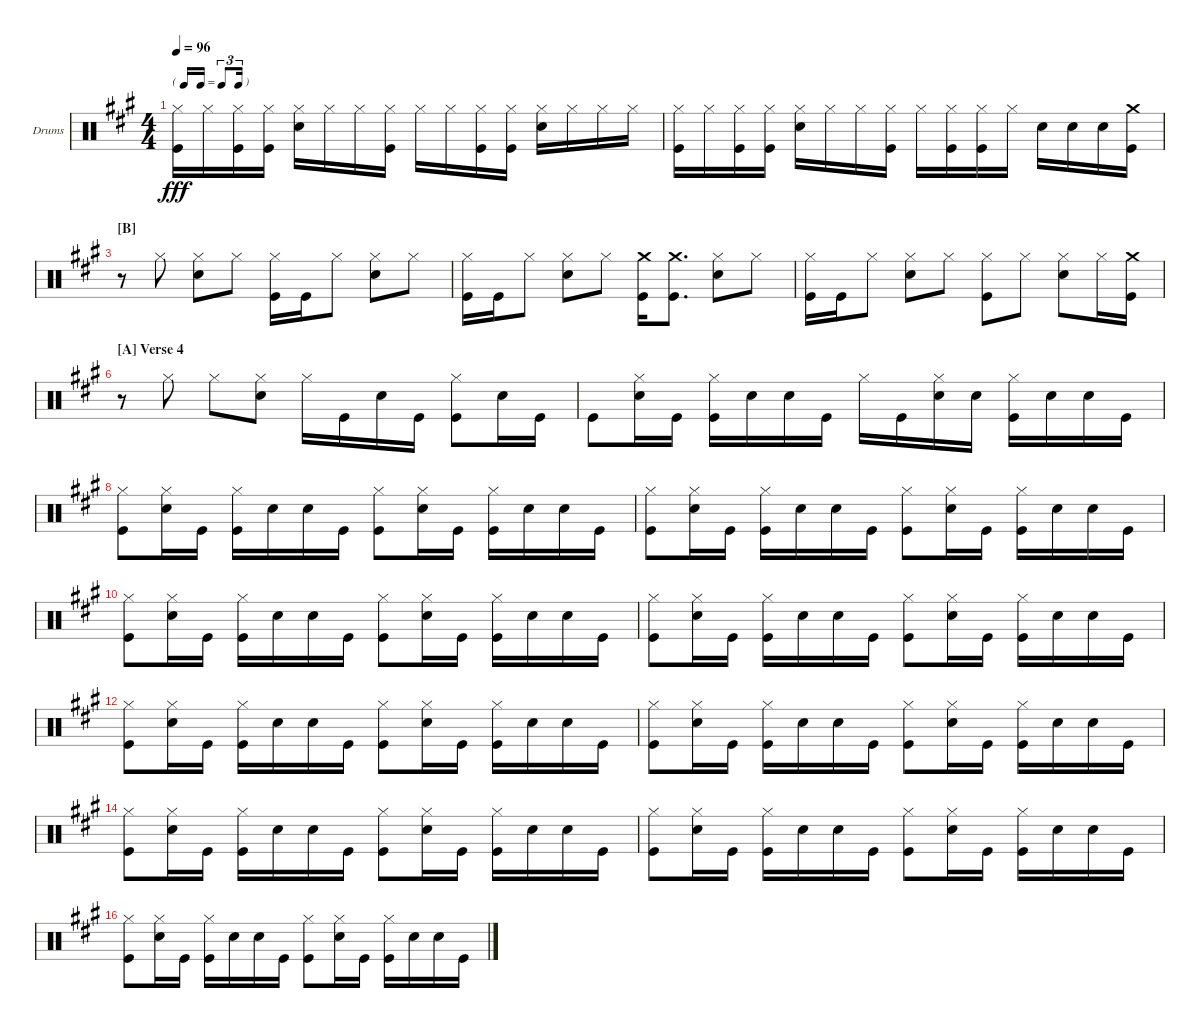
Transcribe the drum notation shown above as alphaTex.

\bracketExtendMode nobrackets
\firstSystemTrackNameOrientation horizontal
\otherSystemsTrackNameOrientation horizontal
\defaultBarNumberDisplay FirstOfSystem
\track ("Drumkit" "Drums") {instrument percussion}
\staff {score}
\articulation defaults
\ts (4 4)
\tf triplet16th
\tempo 96
\clef neutral
\ks a
("Hi-Hat (closed)" "Kick (hit)").16{dy fff} "Hi-Hat (closed)".16 ("Hi-Hat (closed)" "Kick (hit)").16 ("Hi-Hat (closed)" "Kick (hit)").16 ("Hi-Hat (closed)" "Snare (hit) 2").16 "Hi-Hat (closed)".16 "Hi-Hat (closed)".16 ("Hi-Hat (closed)" "Kick (hit)").16 "Hi-Hat (closed)".16 "Hi-Hat (closed)".16 ("Kick (hit)" "Hi-Hat (closed)").16 ("Kick (hit)" "Hi-Hat (closed)").16 ("Snare (hit) 2" "Hi-Hat (closed)").16 "Hi-Hat (closed)".16 "Hi-Hat (closed)".16 "Hi-Hat (closed)".16 |
("Hi-Hat (closed)" "Kick (hit)").16 "Hi-Hat (closed)".16 ("Hi-Hat (closed)" "Kick (hit)").16 ("Hi-Hat (closed)" "Kick (hit)").16 ("Hi-Hat (closed)" "Snare (hit) 2").16 "Hi-Hat (closed)".16 "Hi-Hat (closed)".16 ("Hi-Hat (closed)" "Kick (hit)").16 "Hi-Hat (closed)".16 ("Kick (hit)" "Hi-Hat (closed)").16 ("Kick (hit)" "Hi-Hat (closed)").16 "Hi-Hat (closed)".16 "Snare (hit) 2".16 "Snare (hit) 2".16 "Snare (hit) 2".16 ("Crash medium (hit)" "Kick (hit)").16 |
\section ("B" "")
r.8 "Hi-Hat (closed)".8 ("Snare (hit) 2" "Hi-Hat (closed)").8 "Hi-Hat (closed)".8 ("Kick (hit)" "Hi-Hat (closed)").16 "Kick (hit)".16 "Hi-Hat (closed)".8 ("Snare (hit) 2" "Hi-Hat (closed)").8 "Hi-Hat (closed)".8 |
("Hi-Hat (closed)" "Kick (hit)").16 "Kick (hit)".16 "Hi-Hat (closed)".8 ("Snare (hit) 2" "Hi-Hat (closed)").8 "Hi-Hat (closed)".8 ("Kick (hit)" "Crash medium (hit)").16 ("Kick (hit)" "Crash medium (hit)").8{d} ("Snare (hit) 2" "Hi-Hat (closed)").8 "Hi-Hat (closed)".8 |
("Hi-Hat (closed)" "Kick (hit)").16 "Kick (hit)".16 "Hi-Hat (closed)".8 ("Snare (hit) 2" "Hi-Hat (closed)").8 "Hi-Hat (closed)".8 ("Kick (hit)" "Hi-Hat (closed)").8 "Hi-Hat (closed)".8 ("Snare (hit) 2" "Hi-Hat (closed)").8 "Hi-Hat (closed)".16 ("Kick (hit)" "Crash medium (hit)").16 |
\section ("A" "Verse 4")
r.8 "Hi-Hat (closed)".8 "Hi-Hat (closed)".8 ("Snare (hit) 2" "Hi-Hat (closed)").8 "Hi-Hat (closed)".16 "Kick (hit)".16 "Snare (hit) 2".16 "Kick (hit)".16 ("Hi-Hat (closed)" "Kick (hit)").8 "Snare (hit) 2".16 "Kick (hit)".16 |
"Kick (hit)".8 ("Hi-Hat (closed)" "Snare (hit) 2").16 "Kick (hit)".16 ("Hi-Hat (closed)" "Kick (hit)").16 "Snare (hit) 2".16 "Snare (hit) 2".16 "Kick (hit)".16 "Hi-Hat (closed)".16 "Kick (hit)".16 ("Hi-Hat (closed)" "Snare (hit) 2").16 "Snare (hit) 2".16 ("Kick (hit)" "Hi-Hat (closed)").16 "Snare (hit) 2".16 "Snare (hit) 2".16 "Kick (hit)".16 |
("Hi-Hat (closed)" "Kick (hit)").8 ("Snare (hit) 2" "Hi-Hat (closed)").16 "Kick (hit)".16 ("Hi-Hat (closed)" "Kick (hit)").16 "Snare (hit) 2".16 "Snare (hit) 2".16 "Kick (hit)".16 ("Kick (hit)" "Hi-Hat (closed)").8 ("Snare (hit) 2" "Hi-Hat (closed)").16 "Kick (hit)".16 ("Hi-Hat (closed)" "Kick (hit)").16 "Snare (hit) 2".16 "Snare (hit) 2".16 "Kick (hit)".16 |
("Hi-Hat (closed)" "Kick (hit)").8 ("Hi-Hat (closed)" "Snare (hit) 2").16 "Kick (hit)".16 ("Hi-Hat (closed)" "Kick (hit)").16 "Snare (hit) 2".16 "Snare (hit) 2".16 "Kick (hit)".16 ("Kick (hit)" "Hi-Hat (closed)").8 ("Hi-Hat (closed)" "Snare (hit) 2").16 "Kick (hit)".16 ("Kick (hit)" "Hi-Hat (closed)").16 "Snare (hit) 2".16 "Snare (hit) 2".16 "Kick (hit)".16 |
("Hi-Hat (closed)" "Kick (hit)").8 ("Snare (hit) 2" "Hi-Hat (closed)").16 "Kick (hit)".16 ("Hi-Hat (closed)" "Kick (hit)").16 "Snare (hit) 2".16 "Snare (hit) 2".16 "Kick (hit)".16 ("Kick (hit)" "Hi-Hat (closed)").8 ("Snare (hit) 2" "Hi-Hat (closed)").16 "Kick (hit)".16 ("Hi-Hat (closed)" "Kick (hit)").16 "Snare (hit) 2".16 "Snare (hit) 2".16 "Kick (hit)".16 |
("Hi-Hat (closed)" "Kick (hit)").8 ("Hi-Hat (closed)" "Snare (hit) 2").16 "Kick (hit)".16 ("Hi-Hat (closed)" "Kick (hit)").16 "Snare (hit) 2".16 "Snare (hit) 2".16 "Kick (hit)".16 ("Kick (hit)" "Hi-Hat (closed)").8 ("Hi-Hat (closed)" "Snare (hit) 2").16 "Kick (hit)".16 ("Kick (hit)" "Hi-Hat (closed)").16 "Snare (hit) 2".16 "Snare (hit) 2".16 "Kick (hit)".16 |
("Hi-Hat (closed)" "Kick (hit)").8 ("Snare (hit) 2" "Hi-Hat (closed)").16 "Kick (hit)".16 ("Hi-Hat (closed)" "Kick (hit)").16 "Snare (hit) 2".16 "Snare (hit) 2".16 "Kick (hit)".16 ("Kick (hit)" "Hi-Hat (closed)").8 ("Snare (hit) 2" "Hi-Hat (closed)").16 "Kick (hit)".16 ("Hi-Hat (closed)" "Kick (hit)").16 "Snare (hit) 2".16 "Snare (hit) 2".16 "Kick (hit)".16 |
("Hi-Hat (closed)" "Kick (hit)").8 ("Hi-Hat (closed)" "Snare (hit) 2").16 "Kick (hit)".16 ("Hi-Hat (closed)" "Kick (hit)").16 "Snare (hit) 2".16 "Snare (hit) 2".16 "Kick (hit)".16 ("Kick (hit)" "Hi-Hat (closed)").8 ("Hi-Hat (closed)" "Snare (hit) 2").16 "Kick (hit)".16 ("Kick (hit)" "Hi-Hat (closed)").16 "Snare (hit) 2".16 "Snare (hit) 2".16 "Kick (hit)".16 |
("Hi-Hat (closed)" "Kick (hit)").8 ("Snare (hit) 2" "Hi-Hat (closed)").16 "Kick (hit)".16 ("Hi-Hat (closed)" "Kick (hit)").16 "Snare (hit) 2".16 "Snare (hit) 2".16 "Kick (hit)".16 ("Kick (hit)" "Hi-Hat (closed)").8 ("Snare (hit) 2" "Hi-Hat (closed)").16 "Kick (hit)".16 ("Hi-Hat (closed)" "Kick (hit)").16 "Snare (hit) 2".16 "Snare (hit) 2".16 "Kick (hit)".16 |
("Hi-Hat (closed)" "Kick (hit)").8 ("Hi-Hat (closed)" "Snare (hit) 2").16 "Kick (hit)".16 ("Hi-Hat (closed)" "Kick (hit)").16 "Snare (hit) 2".16 "Snare (hit) 2".16 "Kick (hit)".16 ("Kick (hit)" "Hi-Hat (closed)").8 ("Hi-Hat (closed)" "Snare (hit) 2").16 "Kick (hit)".16 ("Kick (hit)" "Hi-Hat (closed)").16 "Snare (hit) 2".16 "Snare (hit) 2".16 "Kick (hit)".16 |
("Hi-Hat (closed)" "Kick (hit)").8 ("Snare (hit) 2" "Hi-Hat (closed)").16 "Kick (hit)".16 ("Hi-Hat (closed)" "Kick (hit)").16 "Snare (hit) 2".16 "Snare (hit) 2".16 "Kick (hit)".16 ("Kick (hit)" "Hi-Hat (closed)").8 ("Snare (hit) 2" "Hi-Hat (closed)").16 "Kick (hit)".16 ("Hi-Hat (closed)" "Kick (hit)").16 "Snare (hit) 2".16 "Snare (hit) 2".16 "Kick (hit)".16
